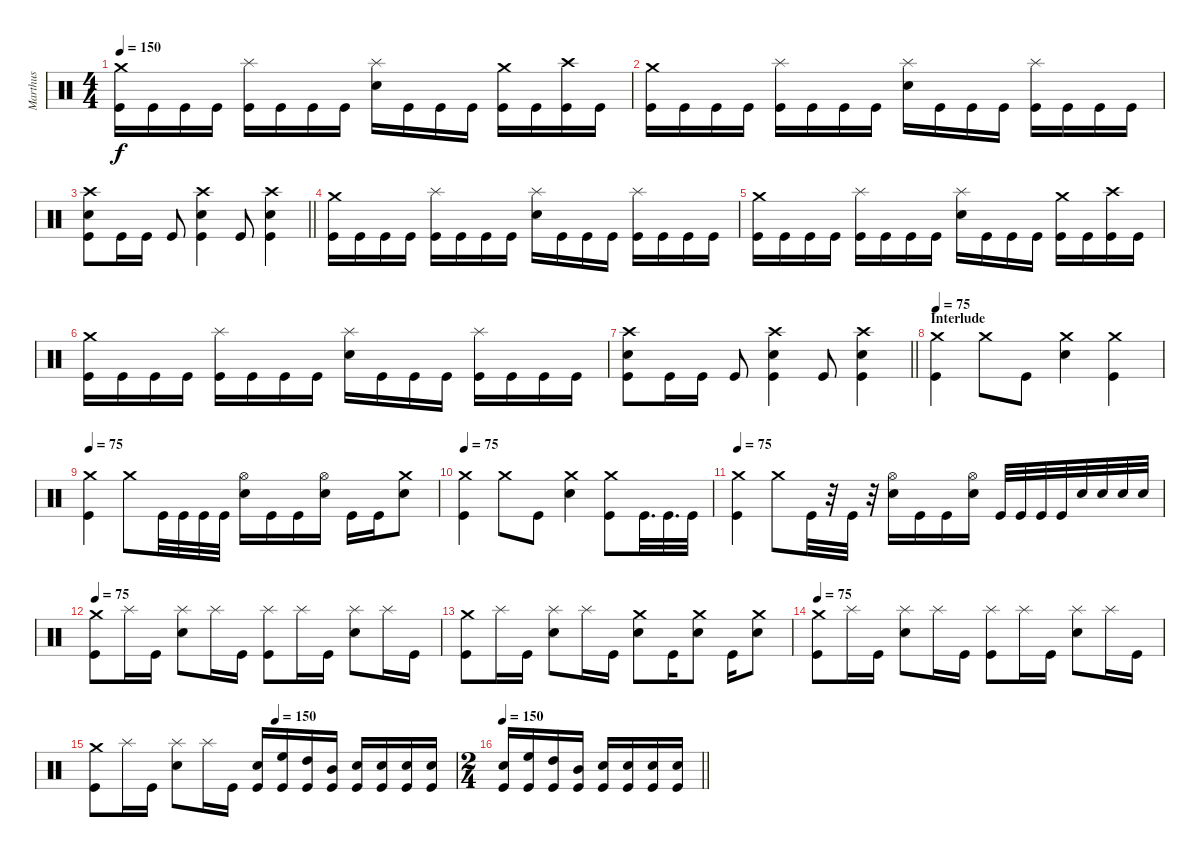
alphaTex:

\track ("Marthus" "Marthus") {instrument percussion}
\staff {score}
\articulation defaults
\ts (4 4)
\tempo 150
\clef neutral
\ks c
("Crash medium (hit)" "Kick (hit)").16{dy f} "Kick (hit)".16 "Kick (hit)".16 "Kick (hit)".16 ("Splash (hit)" "Kick (hit)").16 "Kick (hit)".16 "Kick (hit)".16 "Kick (hit)".16 ("Splash (hit)" "Snare (hit) 2").16 "Kick (hit)".16 "Kick (hit)".16 "Kick (hit)".16 ("Crash medium (hit)" "Kick (hit)").16 "Kick (hit)".16 ("Crash high (hit)" "Kick (hit)").16 "Kick (hit)".16 |
("Crash medium (hit)" "Kick (hit)").16 "Kick (hit)".16 "Kick (hit)".16 "Kick (hit)".16 ("Splash (hit)" "Kick (hit)").16 "Kick (hit)".16 "Kick (hit)".16 "Kick (hit)".16 ("Splash (hit)" "Snare (hit) 2").16 "Kick (hit)".16 "Kick (hit)".16 "Kick (hit)".16 ("Splash (hit)" "Kick (hit)").16 "Kick (hit)".16 "Kick (hit)".16 "Kick (hit)".16 |
\barLineRight lightlight
("Crash high (hit)" "Snare (hit) 2" "Kick (hit)").8 "Kick (hit)".16 "Kick (hit)".16 "Kick (hit)".8 ("Crash high (hit)" "Snare (hit) 2" "Kick (hit)").4 "Kick (hit)".8 ("Crash high (hit)" "Snare (hit) 2" "Kick (hit)").4 |
("Crash medium (hit)" "Kick (hit)").16 "Kick (hit)".16 "Kick (hit)".16 "Kick (hit)".16 ("Splash (hit)" "Kick (hit)").16 "Kick (hit)".16 "Kick (hit)".16 "Kick (hit)".16 ("Splash (hit)" "Snare (hit) 2").16 "Kick (hit)".16 "Kick (hit)".16 "Kick (hit)".16 ("Splash (hit)" "Kick (hit)").16 "Kick (hit)".16 "Kick (hit)".16 "Kick (hit)".16 |
("Crash medium (hit)" "Kick (hit)").16 "Kick (hit)".16 "Kick (hit)".16 "Kick (hit)".16 ("Splash (hit)" "Kick (hit)").16 "Kick (hit)".16 "Kick (hit)".16 "Kick (hit)".16 ("Splash (hit)" "Snare (hit) 2").16 "Kick (hit)".16 "Kick (hit)".16 "Kick (hit)".16 ("Crash medium (hit)" "Kick (hit)").16 "Kick (hit)".16 ("Crash high (hit)" "Kick (hit)").16 "Kick (hit)".16 |
("Crash medium (hit)" "Kick (hit)").16 "Kick (hit)".16 "Kick (hit)".16 "Kick (hit)".16 ("Splash (hit)" "Kick (hit)").16 "Kick (hit)".16 "Kick (hit)".16 "Kick (hit)".16 ("Splash (hit)" "Snare (hit) 2").16 "Kick (hit)".16 "Kick (hit)".16 "Kick (hit)".16 ("Splash (hit)" "Kick (hit)").16 "Kick (hit)".16 "Kick (hit)".16 "Kick (hit)".16 |
\barLineRight lightlight
("Crash high (hit)" "Snare (hit) 2" "Kick (hit)").8 "Kick (hit)".16 "Kick (hit)".16 "Kick (hit)".8 ("Crash high (hit)" "Snare (hit) 2" "Kick (hit)").4 "Kick (hit)".8 ("Crash high (hit)" "Snare (hit) 2" "Kick (hit)").4 |
\section ("" "Interlude")
\tempo 75
("Crash medium (hit)" "Kick (hit)").4 "Crash medium (hit)".8 "Kick (hit)".8 ("Crash medium (hit)" "Snare (hit) 2").4 ("Crash medium (hit)" "Kick (hit)").4 |
\tempo 75
("Crash medium (hit)" "Kick (hit)").4 "Crash medium (hit)".8 "Kick (hit)".32 "Kick (hit)".32 "Kick (hit)".32 "Kick (hit)".32 ("Hi-Hat (open)" "Snare (hit) 2").16 "Kick (hit)".16 "Kick (hit)".16 ("Hi-Hat (open)" "Snare (hit) 2").16 "Kick (hit)".16 "Kick (hit)".16 ("Crash medium (hit)" "Snare (hit) 2").8 |
\tempo 75
("Crash medium (hit)" "Kick (hit)").4 "Crash medium (hit)".8 "Kick (hit)".8 ("Crash medium (hit)" "Snare (hit) 2").4 ("Crash medium (hit)" "Kick (hit)").8 "Kick (hit)".32{d} "Kick (hit)".32{d} "Kick (hit)".32 |
\tempo 75
("Crash medium (hit)" "Kick (hit)").4 "Crash medium (hit)".8 "Kick (hit)".32 r.32 "Kick (hit)".32 r.32 ("Hi-Hat (open)" "Snare (hit) 2").16 "Kick (hit)".16 "Kick (hit)".16 ("Hi-Hat (open)" "Snare (hit) 2").16 "Kick (hit)".32 "Kick (hit)".32 "Kick (hit)".32 "Kick (hit)".32 "Snare (hit) 2".32 "Snare (hit) 2".32 "Snare (hit) 2".32 "Snare (hit) 2".32 |
\tempo 75
("Crash medium (hit)" "Kick (hit)").8 "Splash (hit)".16 "Kick (hit)".16 ("Splash (hit)" "Snare (hit) 2").8 "Splash (hit)".16 "Kick (hit)".16 ("Splash (hit)" "Kick (hit)").8 "Splash (hit)".16 "Kick (hit)".16 ("Splash (hit)" "Snare (hit) 2").8 "Splash (hit)".16 "Kick (hit)".16 |
("Crash medium (hit)" "Kick (hit)").8 "Splash (hit)".16 "Kick (hit)".16 ("Splash (hit)" "Snare (hit) 2").8 "Splash (hit)".16 "Kick (hit)".16 ("Crash medium (hit)" "Snare (hit) 2").8 "Kick (hit)".16 ("Crash medium (hit)" "Snare (hit) 2").8 "Kick (hit)".16 ("Crash medium (hit)" "Snare (hit) 2").8 |
\tempo 75
("Crash medium (hit)" "Kick (hit)").8 "Splash (hit)".16 "Kick (hit)".16 ("Splash (hit)" "Snare (hit) 2").8 "Splash (hit)".16 "Kick (hit)".16 ("Splash (hit)" "Kick (hit)").8 "Splash (hit)".16 "Kick (hit)".16 ("Splash (hit)" "Snare (hit) 2").8 "Splash (hit)".16 "Kick (hit)".16 |
\tempo (150 0.5)
("Crash medium (hit)" "Kick (hit)").8 "Splash (hit)".16 "Kick (hit)".16 ("Splash (hit)" "Snare (hit) 2").8 "Splash (hit)".16 "Kick (hit)".16 ("Snare (hit) 2" "Kick (hit)").16 ("High Floor Tom (hit)" "Kick (hit)").16 ("High Tom (hit)" "Kick (hit)").16 ("Mid Tom (hit)" "Kick (hit)").16 ("Snare (hit) 2" "Kick (hit)").16 ("Snare (hit) 2" "Kick (hit)").16 ("Snare (hit) 2" "Kick (hit)").16 ("Snare (hit) 2" "Kick (hit)").16 |
\ts (2 4)
\tempo 150
\barLineRight lightlight
("Snare (hit) 2" "Kick (hit)").16 ("High Floor Tom (hit)" "Kick (hit)").16 ("High Tom (hit)" "Kick (hit)").16 ("Mid Tom (hit)" "Kick (hit)").16 ("Snare (hit) 2" "Kick (hit)").16 ("Snare (hit) 2" "Kick (hit)").16 ("Snare (hit) 2" "Kick (hit)").16 ("Snare (hit) 2" "Kick (hit)").16
